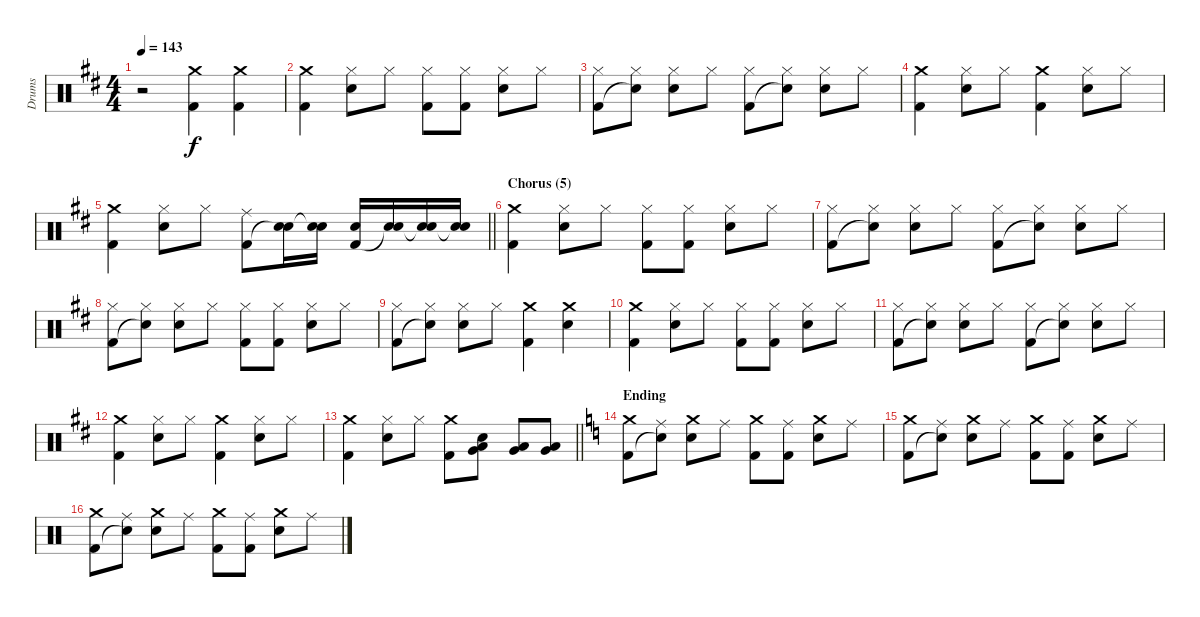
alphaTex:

\track ("Drums" "Drums") {instrument percussion}
\staff {score}
\articulation defaults
\ts (4 4)
\tempo 143
\clef neutral
\ks d
r.2{dy f} ("Crash medium (hit)" "Kick (hit) 2").4 ("Crash medium (hit)" "Kick (hit) 2").4 |
("Crash medium (hit)" "Kick (hit) 2").4 ("Hi-Hat (closed)" "Electric Snare (hit)").8 "Hi-Hat (closed)".8 ("Hi-Hat (closed)" "Kick (hit) 2").8 ("Hi-Hat (closed)" "Kick (hit) 2").8 ("Hi-Hat (closed)" "Electric Snare (hit)").8 "Hi-Hat (closed)".8 |
("Hi-Hat (closed)" "Kick (hit) 2").8 ("Hi-Hat (closed)" "Snare (hit)"{t}).8 ("Hi-Hat (closed)" "Electric Snare (hit)").8 "Hi-Hat (closed)".8 ("Hi-Hat (closed)" "Kick (hit) 2").8 ("Hi-Hat (closed)" "Snare (hit)"{t}).8 ("Hi-Hat (closed)" "Electric Snare (hit)").8 "Hi-Hat (closed)".8 |
("Crash medium (hit)" "Kick (hit) 2").4 ("Hi-Hat (closed)" "Electric Snare (hit)").8 "Hi-Hat (closed)".8 ("Crash medium (hit)" "Kick (hit) 2").4 ("Hi-Hat (closed)" "Electric Snare (hit)").8 "Hi-Hat (closed)".8 |
\barLineRight lightlight
("Crash medium (hit)" "Kick (hit) 2").4 ("Hi-Hat (closed)" "Electric Snare (hit)").8 "Hi-Hat (closed)".8 ("Ride (middle)" "Kick (hit) 2").8 ("Electric Snare (hit)" "Snare (hit)"{t}).16 ("Electric Snare (hit)" "Snare (hit)"{t}).16 ("Electric Snare (hit)" "Kick (hit) 2").16 ("Electric Snare (hit)" "Snare (hit)"{t}).16 ("Electric Snare (hit)" "Snare (hit)"{t}).16 ("Electric Snare (hit)" "Snare (hit)"{t}).16 |
\section ("" "Chorus (5)")
("Crash medium (hit)" "Kick (hit) 2").4 ("Hi-Hat (closed)" "Electric Snare (hit)").8 "Hi-Hat (closed)".8 ("Hi-Hat (closed)" "Kick (hit) 2").8 ("Hi-Hat (closed)" "Kick (hit) 2").8 ("Hi-Hat (closed)" "Electric Snare (hit)").8 "Hi-Hat (closed)".8 |
("Hi-Hat (closed)" "Kick (hit) 2").8 ("Hi-Hat (closed)" "Snare (hit)"{t}).8 ("Hi-Hat (closed)" "Electric Snare (hit)").8 "Hi-Hat (closed)".8 ("Hi-Hat (closed)" "Kick (hit) 2").8 ("Hi-Hat (closed)" "Snare (hit)"{t}).8 ("Hi-Hat (closed)" "Electric Snare (hit)").8 "Hi-Hat (closed)".8 |
("Hi-Hat (closed)" "Kick (hit) 2").8 ("Hi-Hat (closed)" "Snare (hit)"{t}).8 ("Hi-Hat (closed)" "Electric Snare (hit)").8 "Hi-Hat (closed)".8 ("Hi-Hat (closed)" "Kick (hit) 2").8 ("Hi-Hat (closed)" "Kick (hit) 2").8 ("Hi-Hat (closed)" "Electric Snare (hit)").8 "Hi-Hat (closed)".8 |
("Hi-Hat (closed)" "Kick (hit) 2").8 ("Hi-Hat (closed)" "Snare (hit)"{t}).8 ("Hi-Hat (closed)" "Electric Snare (hit)").8 "Hi-Hat (closed)".8 ("Crash medium (hit)" "Kick (hit) 2").4 ("Crash medium (hit)" "Electric Snare (hit)").4 |
("Crash medium (hit)" "Kick (hit) 2").4 ("Hi-Hat (closed)" "Electric Snare (hit)").8 "Hi-Hat (closed)".8 ("Hi-Hat (closed)" "Kick (hit) 2").8 ("Hi-Hat (closed)" "Kick (hit) 2").8 ("Hi-Hat (closed)" "Electric Snare (hit)").8 "Hi-Hat (closed)".8 |
("Hi-Hat (closed)" "Kick (hit) 2").8 ("Hi-Hat (closed)" "Snare (hit)"{t}).8 ("Hi-Hat (closed)" "Electric Snare (hit)").8 "Hi-Hat (closed)".8 ("Hi-Hat (closed)" "Kick (hit) 2").8 ("Hi-Hat (closed)" "Snare (hit)"{t}).8 ("Hi-Hat (closed)" "Electric Snare (hit)").8 "Hi-Hat (closed)".8 |
("Crash medium (hit)" "Kick (hit) 2").4 ("Hi-Hat (closed)" "Electric Snare (hit)").8 "Hi-Hat (closed)".8 ("Crash medium (hit)" "Kick (hit) 2").4 ("Hi-Hat (closed)" "Electric Snare (hit)").8 "Hi-Hat (closed)".8 |
\barLineRight lightlight
("Crash medium (hit)" "Kick (hit) 2").4 ("Hi-Hat (closed)" "Electric Snare (hit)").8 "Hi-Hat (closed)".8 ("Crash medium (hit)" "Kick (hit) 2").8 ("Low Tom (hit)" "Very Low Tom (hit)" "Snare (hit)").8 ("Low Tom (hit)" "Very Low Tom (hit)").8 ("Low Tom (hit)" "Very Low Tom (hit)").8 |
\section ("" "Ending")
\ks aminor
("Crash medium (hit)" "Kick (hit) 2").8 ("Ride (middle)" "Snare (hit)"{t}).8 ("Crash medium (hit)" "Electric Snare (hit)").8 "Ride (middle)".8 ("Crash medium (hit)" "Kick (hit) 2").8 ("Ride (middle)" "Kick (hit) 2").8 ("Crash medium (hit)" "Electric Snare (hit)").8 "Ride (middle)".8 |
("Crash medium (hit)" "Kick (hit) 2").8 ("Ride (middle)" "Snare (hit)"{t}).8 ("Crash medium (hit)" "Electric Snare (hit)").8 "Ride (middle)".8 ("Crash medium (hit)" "Kick (hit) 2").8 ("Ride (middle)" "Kick (hit) 2").8 ("Crash medium (hit)" "Electric Snare (hit)").8 "Ride (middle)".8 |
("Crash medium (hit)" "Kick (hit) 2").8 ("Ride (middle)" "Snare (hit)"{t}).8 ("Crash medium (hit)" "Electric Snare (hit)").8 "Ride (middle)".8 ("Crash medium (hit)" "Kick (hit) 2").8 ("Ride (middle)" "Kick (hit) 2").8 ("Crash medium (hit)" "Electric Snare (hit)").8 "Ride (middle)".8
